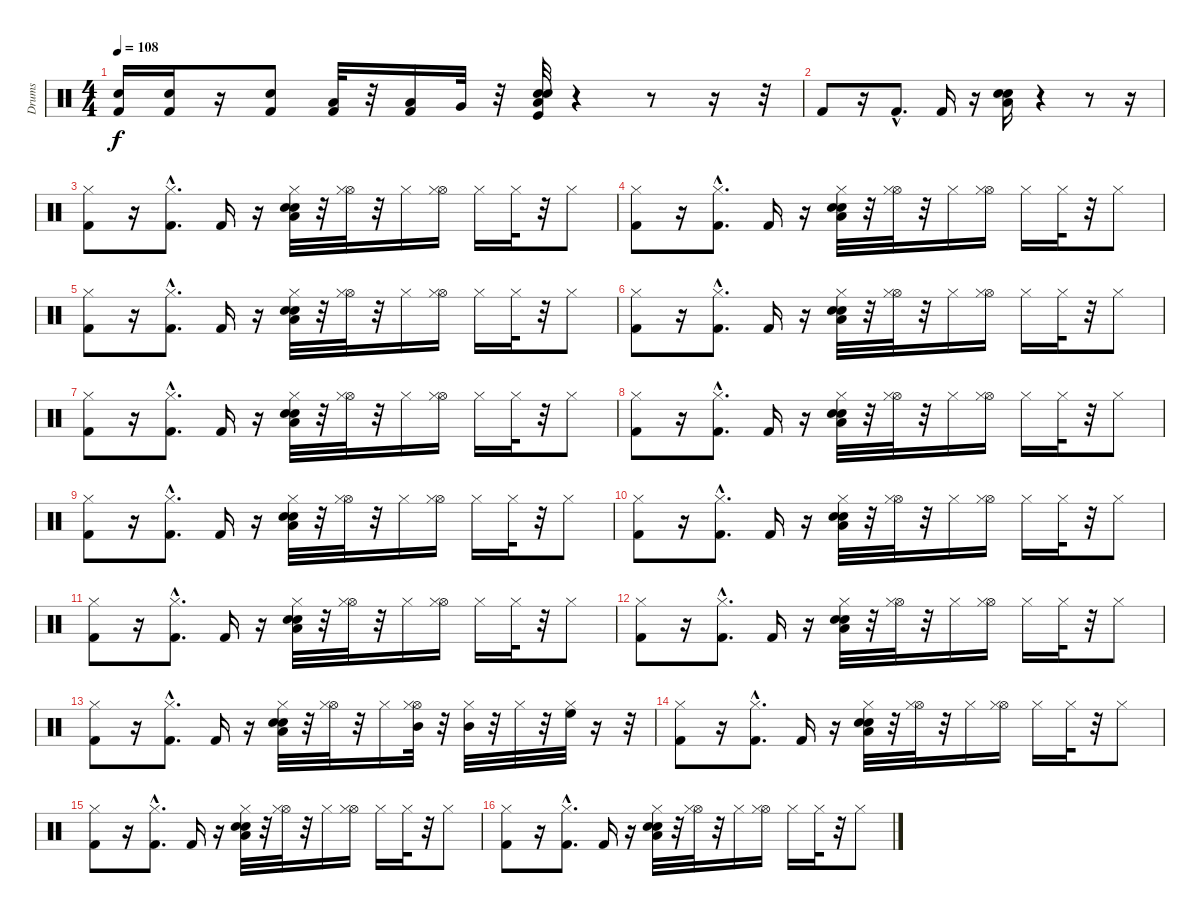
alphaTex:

\track ("Drums" "Drums") {instrument percussion}
\staff {score}
\articulation defaults
\ts (4 4)
\tempo 108
\clef neutral
\ks c
("Snare (hit) 2" "Kick (hit) 2").16{dy f} ("Electric Snare (hit)" "Kick (hit) 2").16 r.16 ("Kick (hit) 2" "Snare (hit) 2").8 ("Kick (hit) 2" "Low Floor Tom (hit)").32 r.32 ("Low Floor Tom (hit)" "Kick (hit) 2").16 "Very Low Tom (hit)".32 r.32 ("Low Floor Tom (hit)" "Electric Snare (hit)" "Snare (hit) 2" "Kick (hit)").32 r.4 r.8 r.16 r.32 |
"Kick (hit) 2".8 r.16 "Kick (hit) 2"{hac}.8{d} "Kick (hit) 2".16 r.16 ("Low Floor Tom (hit)" "Electric Snare (hit)" "Snare (hit) 2").16 r.4 r.8 r.16 |
("Hi-Hat (closed)" "Kick (hit) 2").8 r.16 ("Kick (hit) 2"{hac} "Hi-Hat (closed)"{hac}).8{d} "Kick (hit) 2".16 r.16 ("Low Floor Tom (hit)" "Electric Snare (hit)" "Snare (hit) 2" "Hi-Hat (closed)").32 r.32 ("Hi-Hat (open)" "Hi-Hat (closed)").32 r.32 "Hi-Hat (closed)".16 ("Hi-Hat (open)" "Hi-Hat (closed)").16 "Hi-Hat (closed)".16 "Hi-Hat (closed)".32 r.32 "Hi-Hat (closed)".8 |
("Hi-Hat (closed)" "Kick (hit) 2").8 r.16 ("Kick (hit) 2"{hac} "Hi-Hat (closed)"{hac}).8{d} "Kick (hit) 2".16 r.16 ("Low Floor Tom (hit)" "Electric Snare (hit)" "Snare (hit) 2" "Hi-Hat (closed)").32 r.32 ("Hi-Hat (open)" "Hi-Hat (closed)").32 r.32 "Hi-Hat (closed)".16 ("Hi-Hat (open)" "Hi-Hat (closed)").16 "Hi-Hat (closed)".16 "Hi-Hat (closed)".32 r.32 "Hi-Hat (closed)".8 |
("Hi-Hat (closed)" "Kick (hit) 2").8 r.16 ("Kick (hit) 2"{hac} "Hi-Hat (closed)"{hac}).8{d} "Kick (hit) 2".16 r.16 ("Low Floor Tom (hit)" "Electric Snare (hit)" "Snare (hit) 2" "Hi-Hat (closed)").32 r.32 ("Hi-Hat (open)" "Hi-Hat (closed)").32 r.32 "Hi-Hat (closed)".16 ("Hi-Hat (open)" "Hi-Hat (closed)").16 "Hi-Hat (closed)".16 "Hi-Hat (closed)".32 r.32 "Hi-Hat (closed)".8 |
("Hi-Hat (closed)" "Kick (hit) 2").8 r.16 ("Kick (hit) 2"{hac} "Hi-Hat (closed)"{hac}).8{d} "Kick (hit) 2".16 r.16 ("Low Floor Tom (hit)" "Electric Snare (hit)" "Snare (hit) 2" "Hi-Hat (closed)").32 r.32 ("Hi-Hat (open)" "Hi-Hat (closed)").32 r.32 "Hi-Hat (closed)".16 ("Hi-Hat (open)" "Hi-Hat (closed)").16 "Hi-Hat (closed)".16 "Hi-Hat (closed)".32 r.32 "Hi-Hat (closed)".8 |
("Hi-Hat (closed)" "Kick (hit) 2").8 r.16 ("Kick (hit) 2"{hac} "Hi-Hat (closed)"{hac}).8{d} "Kick (hit) 2".16 r.16 ("Low Floor Tom (hit)" "Electric Snare (hit)" "Snare (hit) 2" "Hi-Hat (closed)").32 r.32 ("Hi-Hat (open)" "Hi-Hat (closed)").32 r.32 "Hi-Hat (closed)".16 ("Hi-Hat (open)" "Hi-Hat (closed)").16 "Hi-Hat (closed)".16 "Hi-Hat (closed)".32 r.32 "Hi-Hat (closed)".8 |
("Hi-Hat (closed)" "Kick (hit) 2").8 r.16 ("Kick (hit) 2"{hac} "Hi-Hat (closed)"{hac}).8{d} "Kick (hit) 2".16 r.16 ("Low Floor Tom (hit)" "Electric Snare (hit)" "Snare (hit) 2" "Hi-Hat (closed)").32 r.32 ("Hi-Hat (open)" "Hi-Hat (closed)").32 r.32 "Hi-Hat (closed)".16 ("Hi-Hat (open)" "Hi-Hat (closed)").16 "Hi-Hat (closed)".16 "Hi-Hat (closed)".32 r.32 "Hi-Hat (closed)".8 |
("Hi-Hat (closed)" "Kick (hit) 2").8 r.16 ("Kick (hit) 2"{hac} "Hi-Hat (closed)"{hac}).8{d} "Kick (hit) 2".16 r.16 ("Low Floor Tom (hit)" "Electric Snare (hit)" "Snare (hit) 2" "Hi-Hat (closed)").32 r.32 ("Hi-Hat (open)" "Hi-Hat (closed)").32 r.32 "Hi-Hat (closed)".16 ("Hi-Hat (open)" "Hi-Hat (closed)").16 "Hi-Hat (closed)".16 "Hi-Hat (closed)".32 r.32 "Hi-Hat (closed)".8 |
("Hi-Hat (closed)" "Kick (hit) 2").8 r.16 ("Kick (hit) 2"{hac} "Hi-Hat (closed)"{hac}).8{d} "Kick (hit) 2".16 r.16 ("Low Floor Tom (hit)" "Electric Snare (hit)" "Snare (hit) 2" "Hi-Hat (closed)").32 r.32 ("Hi-Hat (open)" "Hi-Hat (closed)").32 r.32 "Hi-Hat (closed)".16 ("Hi-Hat (open)" "Hi-Hat (closed)").16 "Hi-Hat (closed)".16 "Hi-Hat (closed)".32 r.32 "Hi-Hat (closed)".8 |
("Hi-Hat (closed)" "Kick (hit) 2").8 r.16 ("Kick (hit) 2"{hac} "Hi-Hat (closed)"{hac}).8{d} "Kick (hit) 2".16 r.16 ("Low Floor Tom (hit)" "Electric Snare (hit)" "Snare (hit) 2" "Hi-Hat (closed)").32 r.32 ("Hi-Hat (open)" "Hi-Hat (closed)").32 r.32 "Hi-Hat (closed)".16 ("Hi-Hat (open)" "Hi-Hat (closed)").16 "Hi-Hat (closed)".16 "Hi-Hat (closed)".32 r.32 "Hi-Hat (closed)".8 |
("Hi-Hat (closed)" "Kick (hit) 2").8 r.16 ("Kick (hit) 2"{hac} "Hi-Hat (closed)"{hac}).8{d} "Kick (hit) 2".16 r.16 ("Low Floor Tom (hit)" "Electric Snare (hit)" "Snare (hit) 2" "Hi-Hat (closed)").32 r.32 ("Hi-Hat (open)" "Hi-Hat (closed)").32 r.32 "Hi-Hat (closed)".16 ("Hi-Hat (open)" "Hi-Hat (closed)").16 "Hi-Hat (closed)".16 "Hi-Hat (closed)".32 r.32 "Hi-Hat (closed)".8 |
("Hi-Hat (closed)" "Kick (hit) 2").8 r.16 ("Kick (hit) 2"{hac} "Hi-Hat (closed)"{hac}).8{d} "Kick (hit) 2".16 r.16 ("Low Floor Tom (hit)" "Electric Snare (hit)" "Snare (hit) 2" "Hi-Hat (closed)").32 r.32 ("Hi-Hat (open)" "Hi-Hat (closed)").32 r.32 "Hi-Hat (closed)".16 ("Hi-Hat (open)" "Hi-Hat (closed)" "Mid Tom (hit)").32 r.32 ("Hi-Hat (closed)" "Mid Tom (hit)").32 r.32 "Hi-Hat (closed)".32 r.32 ("Hi-Hat (closed)" "High Floor Tom (hit)").32 r.16 r.32 |
("Hi-Hat (closed)" "Kick (hit) 2").8 r.16 ("Kick (hit) 2"{hac} "Hi-Hat (closed)"{hac}).8{d} "Kick (hit) 2".16 r.16 ("Low Floor Tom (hit)" "Electric Snare (hit)" "Snare (hit) 2" "Hi-Hat (closed)").32 r.32 ("Hi-Hat (open)" "Hi-Hat (closed)").32 r.32 "Hi-Hat (closed)".16 ("Hi-Hat (open)" "Hi-Hat (closed)").16 "Hi-Hat (closed)".16 "Hi-Hat (closed)".32 r.32 "Hi-Hat (closed)".8 |
("Hi-Hat (closed)" "Kick (hit) 2").8 r.16 ("Kick (hit) 2"{hac} "Hi-Hat (closed)"{hac}).8{d} "Kick (hit) 2".16 r.16 ("Low Floor Tom (hit)" "Electric Snare (hit)" "Snare (hit) 2" "Hi-Hat (closed)").32 r.32 ("Hi-Hat (open)" "Hi-Hat (closed)").32 r.32 "Hi-Hat (closed)".16 ("Hi-Hat (open)" "Hi-Hat (closed)").16 "Hi-Hat (closed)".16 "Hi-Hat (closed)".32 r.32 "Hi-Hat (closed)".8 |
("Hi-Hat (closed)" "Kick (hit) 2").8 r.16 ("Kick (hit) 2"{hac} "Hi-Hat (closed)"{hac}).8{d} "Kick (hit) 2".16 r.16 ("Low Floor Tom (hit)" "Electric Snare (hit)" "Snare (hit) 2" "Hi-Hat (closed)").32 r.32 ("Hi-Hat (open)" "Hi-Hat (closed)").32 r.32 "Hi-Hat (closed)".16 ("Hi-Hat (open)" "Hi-Hat (closed)").16 "Hi-Hat (closed)".16 "Hi-Hat (closed)".32 r.32 "Hi-Hat (closed)".8
